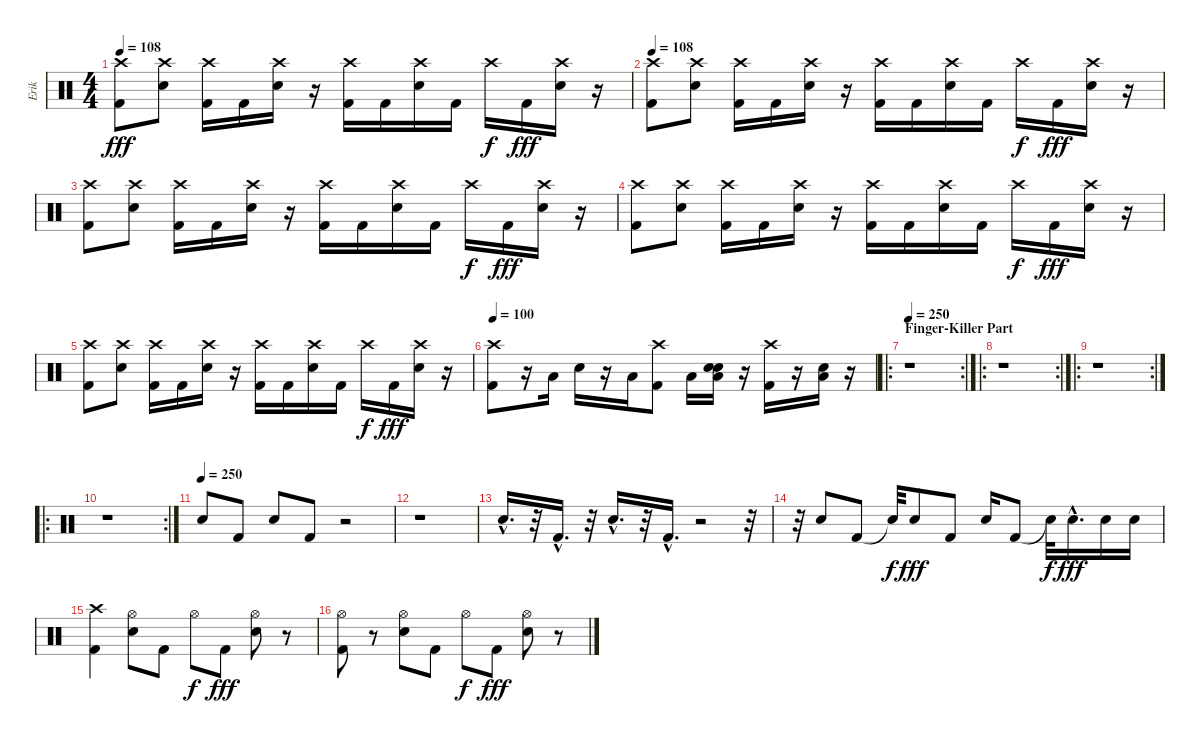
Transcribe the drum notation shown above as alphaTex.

\track ("Erik" "Erik") {instrument percussion}
\staff {score}
\articulation defaults
\ts (4 4)
\tempo 108
\clef neutral
\ks c
("Crash high (hit)" "Kick (hit) 2").8{dy fff} ("Crash high (hit)" "Electric Snare (hit)").8 ("Crash high (hit)" "Kick (hit) 2").16 "Kick (hit) 2".16 ("Crash high (hit)" "Electric Snare (hit)").16 r.16 ("Crash high (hit)" "Kick (hit) 2").16 "Kick (hit) 2".16 ("Crash high (hit)" "Electric Snare (hit)").16 "Kick (hit) 2".16 "Crash high (hit)".16{dy f} "Kick (hit) 2".16{dy fff} ("Crash high (hit)" "Electric Snare (hit)").16 r.16 |
\tempo 108
("Crash high (hit)" "Kick (hit) 2").8 ("Crash high (hit)" "Electric Snare (hit)").8 ("Crash high (hit)" "Kick (hit) 2").16 "Kick (hit) 2".16 ("Crash high (hit)" "Electric Snare (hit)").16 r.16 ("Crash high (hit)" "Kick (hit) 2").16 "Kick (hit) 2".16 ("Crash high (hit)" "Electric Snare (hit)").16 "Kick (hit) 2".16 "Crash high (hit)".16{dy f} "Kick (hit) 2".16{dy fff} ("Crash high (hit)" "Electric Snare (hit)").16 r.16 |
("Crash high (hit)" "Kick (hit) 2").8 ("Crash high (hit)" "Electric Snare (hit)").8 ("Crash high (hit)" "Kick (hit) 2").16 "Kick (hit) 2".16 ("Crash high (hit)" "Electric Snare (hit)").16 r.16 ("Crash high (hit)" "Kick (hit) 2").16 "Kick (hit) 2".16 ("Crash high (hit)" "Electric Snare (hit)").16 "Kick (hit) 2".16 "Crash high (hit)".16{dy f} "Kick (hit) 2".16{dy fff} ("Crash high (hit)" "Electric Snare (hit)").16 r.16 |
("Crash high (hit)" "Kick (hit) 2").8 ("Crash high (hit)" "Electric Snare (hit)").8 ("Crash high (hit)" "Kick (hit) 2").16 "Kick (hit) 2".16 ("Crash high (hit)" "Electric Snare (hit)").16 r.16 ("Crash high (hit)" "Kick (hit) 2").16 "Kick (hit) 2".16 ("Crash high (hit)" "Electric Snare (hit)").16 "Kick (hit) 2".16 "Crash high (hit)".16{dy f} "Kick (hit) 2".16{dy fff} ("Crash high (hit)" "Electric Snare (hit)").16 r.16 |
("Crash high (hit)" "Kick (hit) 2").8 ("Crash high (hit)" "Electric Snare (hit)").8 ("Crash high (hit)" "Kick (hit) 2").16 "Kick (hit) 2".16 ("Crash high (hit)" "Electric Snare (hit)").16 r.16 ("Crash high (hit)" "Kick (hit) 2").16 "Kick (hit) 2".16 ("Crash high (hit)" "Electric Snare (hit)").16 "Kick (hit) 2".16 "Crash high (hit)".16{dy f} "Kick (hit) 2".16{dy fff} ("Crash high (hit)" "Electric Snare (hit)").16 r.16 |
\tempo 159
\tempo 100
("Kick (hit) 2" "Crash high (hit)").8 r.16 "Low Tom (hit)".16 "Electric Snare (hit)".16 r.16 "Low Tom (hit)".16 ("Crash high (hit)" "Kick (hit) 2").8 "Low Tom (hit)".16 ("Electric Snare (hit)" "Electric Snare (hit)" "Low Tom (hit)").16 r.16 ("Kick (hit) 2" "Crash high (hit)").16 r.16 ("Low Tom (hit)" "Electric Snare (hit)").16 r.16 |
\ro
\rc 2
\section ("" "Finger-Killer Part")
\tempo 250
r.1 |
\ro
\rc 2
r.1 |
\ro
\rc 2
r.1 |
\ro
\rc 2
r.1 |
\tempo (250)
"Electric Snare (hit)".8 "Kick (hit) 2".8 "Electric Snare (hit)".8 "Kick (hit) 2".8 r.2 |
r.1 |
"Electric Snare (hit)"{hac}.16{d} r.32 "Kick (hit) 2"{hac}.16{d} r.32 "Electric Snare (hit)"{hac}.16{d} r.32 "Kick (hit) 2"{hac}.16{d} r.2 r.32 |
r.32 "Electric Snare (hit)".8 "Kick (hit) 2".8 "Snare (hit)"{t}.32{dy f} "Electric Snare (hit)".8{dy fff} "Kick (hit) 2".8 "Electric Snare (hit)".16 "Kick (hit) 2".8 "Snare (hit)"{t}.32{dy f} "Electric Snare (hit)"{hac}.16{d dy fff} "Electric Snare (hit)".16 "Electric Snare (hit)".16 |
("Kick (hit) 2" "Crash high (hit)").4 ("Electric Snare (hit)" "Hi-Hat (open)").8 "Kick (hit) 2".8 "Hi-Hat (open)".8{dy f} "Kick (hit) 2".8{dy fff} ("Electric Snare (hit)" "Hi-Hat (open)").8 r.8 |
("Kick (hit) 2" "Hi-Hat (open)").8 r.8 ("Electric Snare (hit)" "Hi-Hat (open)").8 "Kick (hit) 2".8 "Hi-Hat (open)".8{dy f} "Kick (hit) 2".8{dy fff} ("Hi-Hat (open)" "Electric Snare (hit)").8 r.8
